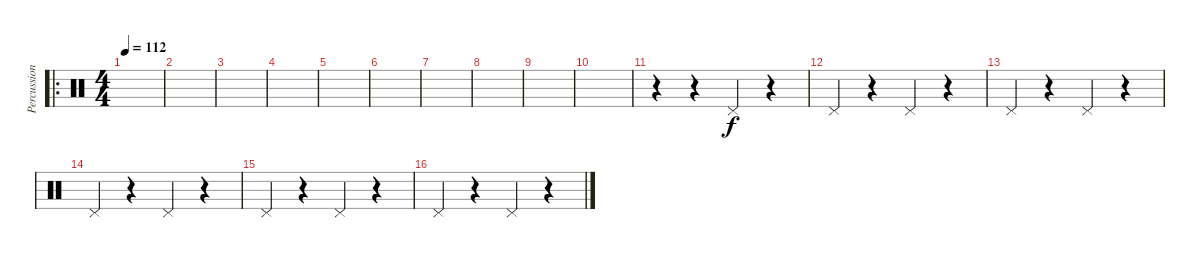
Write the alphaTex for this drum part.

\track ("Percussion" "Percussion") {instrument percussion}
\staff {score}
\articulation defaults
\ro
\ts (4 4)
\tempo 112
\clef neutral
\ks c
|
|
|
|
|
|
|
|
|
|
r.4 r.4 "Pedal Hi-Hat (hit)".4 r.4 |
"Pedal Hi-Hat (hit)".4 r.4 "Pedal Hi-Hat (hit)".4 r.4 |
"Pedal Hi-Hat (hit)".4 r.4 "Pedal Hi-Hat (hit)".4 r.4 |
"Pedal Hi-Hat (hit)".4 r.4 "Pedal Hi-Hat (hit)".4 r.4 |
"Pedal Hi-Hat (hit)".4 r.4 "Pedal Hi-Hat (hit)".4 r.4 |
"Pedal Hi-Hat (hit)".4 r.4 "Pedal Hi-Hat (hit)".4 r.4
